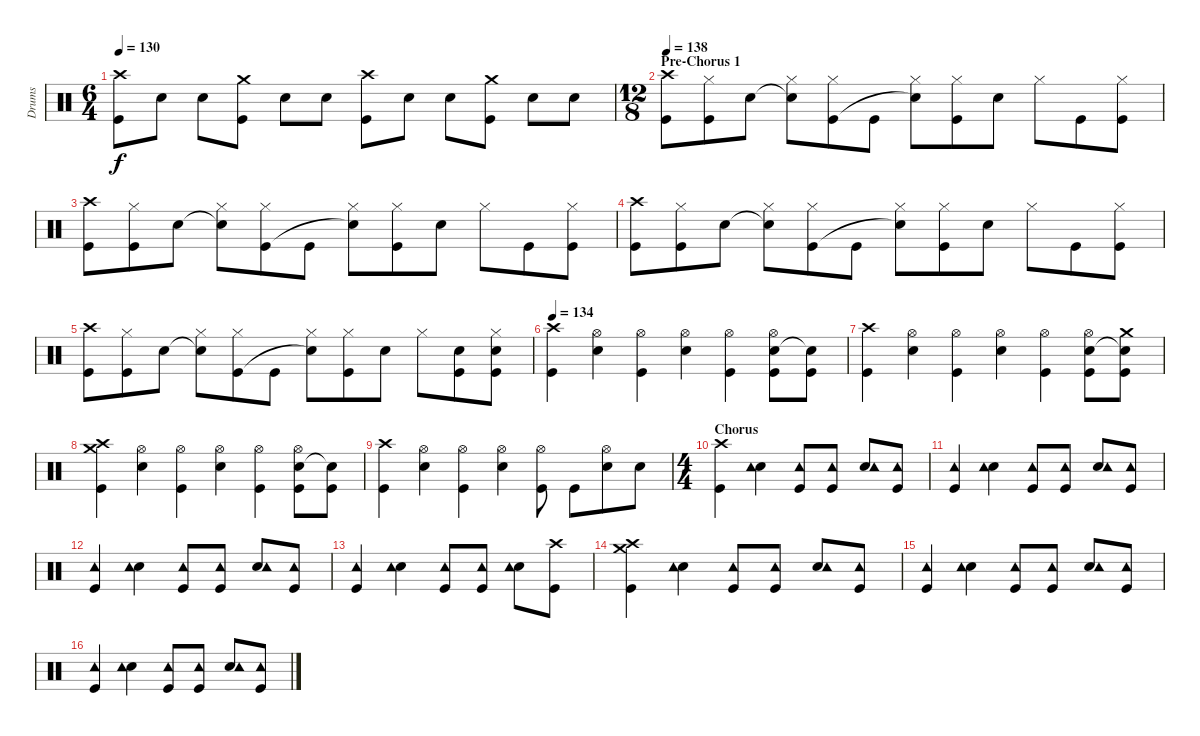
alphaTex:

\track ("Drums" "Drums") {instrument percussion}
\staff {score}
\articulation defaults
\ts (6 4)
\tempo 130
\clef neutral
\ks c
("Crash high (hit)" "Kick (hit)").8{dy f} "Electric Snare (hit)".8 "Electric Snare (hit)".8 ("Crash medium (hit)" "Kick (hit)").8 "Electric Snare (hit)".8 "Electric Snare (hit)".8 ("Crash high (hit)" "Kick (hit)").8 "Electric Snare (hit)".8 "Electric Snare (hit)".8 ("Crash medium (hit)" "Kick (hit)").8 "Electric Snare (hit)".8 "Electric Snare (hit)".8 |
\ts (12 8)
\section ("" "Pre-Chorus 1")
\tempo 134
\tempo 138
("Crash high (hit)" "Kick (hit)").8 ("Hi-Hat (closed)" "Kick (hit)").8 "Electric Snare (hit)".8 ("Snare (hit)"{t} "Hi-Hat (closed)").8 ("Hi-Hat (closed)" "Kick (hit)").8 "Kick (hit)".8 ("Hi-Hat (closed)" "Snare (hit)"{t}).8 ("Hi-Hat (closed)" "Kick (hit)").8 "Electric Snare (hit)".8 "Hi-Hat (closed)".8 "Kick (hit)".8 ("Hi-Hat (closed)" "Kick (hit)").8 |
("Crash high (hit)" "Kick (hit)").8 ("Hi-Hat (closed)" "Kick (hit)").8 "Electric Snare (hit)".8 ("Snare (hit)"{t} "Hi-Hat (closed)").8 ("Hi-Hat (closed)" "Kick (hit)").8 "Kick (hit)".8 ("Hi-Hat (closed)" "Snare (hit)"{t}).8 ("Hi-Hat (closed)" "Kick (hit)").8 "Electric Snare (hit)".8 "Hi-Hat (closed)".8 "Kick (hit)".8 ("Hi-Hat (closed)" "Kick (hit)").8 |
("Crash high (hit)" "Kick (hit)").8 ("Hi-Hat (closed)" "Kick (hit)").8 "Electric Snare (hit)".8 ("Snare (hit)"{t} "Hi-Hat (closed)").8 ("Hi-Hat (closed)" "Kick (hit)").8 "Kick (hit)".8 ("Hi-Hat (closed)" "Snare (hit)"{t}).8 ("Hi-Hat (closed)" "Kick (hit)").8 "Electric Snare (hit)".8 "Hi-Hat (closed)".8 "Kick (hit)".8 ("Hi-Hat (closed)" "Kick (hit)").8 |
("Crash high (hit)" "Kick (hit)").8 ("Hi-Hat (closed)" "Kick (hit)").8 "Electric Snare (hit)".8 ("Snare (hit)"{t} "Hi-Hat (closed)").8 ("Hi-Hat (closed)" "Kick (hit)").8 "Kick (hit)".8 ("Hi-Hat (closed)" "Snare (hit)"{t}).8 ("Hi-Hat (closed)" "Kick (hit)").8 "Electric Snare (hit)".8 "Hi-Hat (closed)".8 ("Electric Snare (hit)" "Kick (hit)").8 ("Electric Snare (hit)" "Hi-Hat (closed)" "Kick (hit)").8 |
\tempo 134
("Crash high (hit)" "Kick (hit)").4 ("Electric Snare (hit)" "Hi-Hat (open)").4 ("Hi-Hat (open)" "Kick (hit)").4 ("Electric Snare (hit)" "Hi-Hat (open)").4 ("Hi-Hat (open)" "Kick (hit)").4 ("Electric Snare (hit)" "Hi-Hat (open)" "Kick (hit)").8 ("Snare (hit)"{t} "Kick (hit)").8 |
("Crash high (hit)" "Kick (hit)").4 ("Electric Snare (hit)" "Hi-Hat (open)").4 ("Hi-Hat (open)" "Kick (hit)").4 ("Electric Snare (hit)" "Hi-Hat (open)").4 ("Hi-Hat (open)" "Kick (hit)").4 ("Electric Snare (hit)" "Hi-Hat (open)" "Kick (hit)").8 ("Snare (hit)"{t} "Crash medium (hit)" "Kick (hit)").8 |
("Crash medium (hit)" "Crash high (hit)" "Kick (hit)").4 ("Electric Snare (hit)" "Hi-Hat (open)").4 ("Hi-Hat (open)" "Kick (hit)").4 ("Electric Snare (hit)" "Hi-Hat (open)").4 ("Hi-Hat (open)" "Kick (hit)").4 ("Electric Snare (hit)" "Hi-Hat (open)" "Kick (hit)").8 ("Snare (hit)"{t} "Kick (hit)").8 |
("Crash high (hit)" "Kick (hit)").4 ("Electric Snare (hit)" "Hi-Hat (open)").4 ("Hi-Hat (open)" "Kick (hit)").4 ("Electric Snare (hit)" "Hi-Hat (open)").4 ("Hi-Hat (open)" "Kick (hit)").8 "Kick (hit)".8 ("Electric Snare (hit)" "Hi-Hat (open)").8 "Electric Snare (hit)".8 |
\ts (4 4)
\section ("" "Chorus")
("Crash high (hit)" "Kick (hit)").4 ("Electric Snare (hit)" "Tambourine (hit)").4 ("Tambourine (hit)" "Kick (hit)").8 ("Tambourine (hit)" "Kick (hit)").8 ("Electric Snare (hit)" "Tambourine (hit)").8 ("Tambourine (hit)" "Kick (hit)").8 |
("Tambourine (hit)" "Kick (hit)").4 ("Electric Snare (hit)" "Tambourine (hit)").4 ("Tambourine (hit)" "Kick (hit)").8 ("Tambourine (hit)" "Kick (hit)").8 ("Electric Snare (hit)" "Tambourine (hit)").8 ("Tambourine (hit)" "Kick (hit)").8 |
("Tambourine (hit)" "Kick (hit)").4 ("Electric Snare (hit)" "Tambourine (hit)").4 ("Tambourine (hit)" "Kick (hit)").8 ("Tambourine (hit)" "Kick (hit)").8 ("Electric Snare (hit)" "Tambourine (hit)").8 ("Tambourine (hit)" "Kick (hit)").8 |
("Tambourine (hit)" "Kick (hit)").4 ("Electric Snare (hit)" "Tambourine (hit)").4 ("Tambourine (hit)" "Kick (hit)").8 ("Tambourine (hit)" "Kick (hit)").8 ("Electric Snare (hit)" "Tambourine (hit)").8 ("Crash high (hit)" "Kick (hit)").8 |
("Crash medium (hit)" "Crash high (hit)" "Kick (hit)").4 ("Electric Snare (hit)" "Tambourine (hit)").4 ("Tambourine (hit)" "Kick (hit)").8 ("Tambourine (hit)" "Kick (hit)").8 ("Electric Snare (hit)" "Tambourine (hit)").8 ("Tambourine (hit)" "Kick (hit)").8 |
("Tambourine (hit)" "Kick (hit)").4 ("Electric Snare (hit)" "Tambourine (hit)").4 ("Tambourine (hit)" "Kick (hit)").8 ("Tambourine (hit)" "Kick (hit)").8 ("Electric Snare (hit)" "Tambourine (hit)").8 ("Tambourine (hit)" "Kick (hit)").8 |
("Tambourine (hit)" "Kick (hit)").4 ("Electric Snare (hit)" "Tambourine (hit)").4 ("Tambourine (hit)" "Kick (hit)").8 ("Tambourine (hit)" "Kick (hit)").8 ("Electric Snare (hit)" "Tambourine (hit)").8 ("Tambourine (hit)" "Kick (hit)").8
